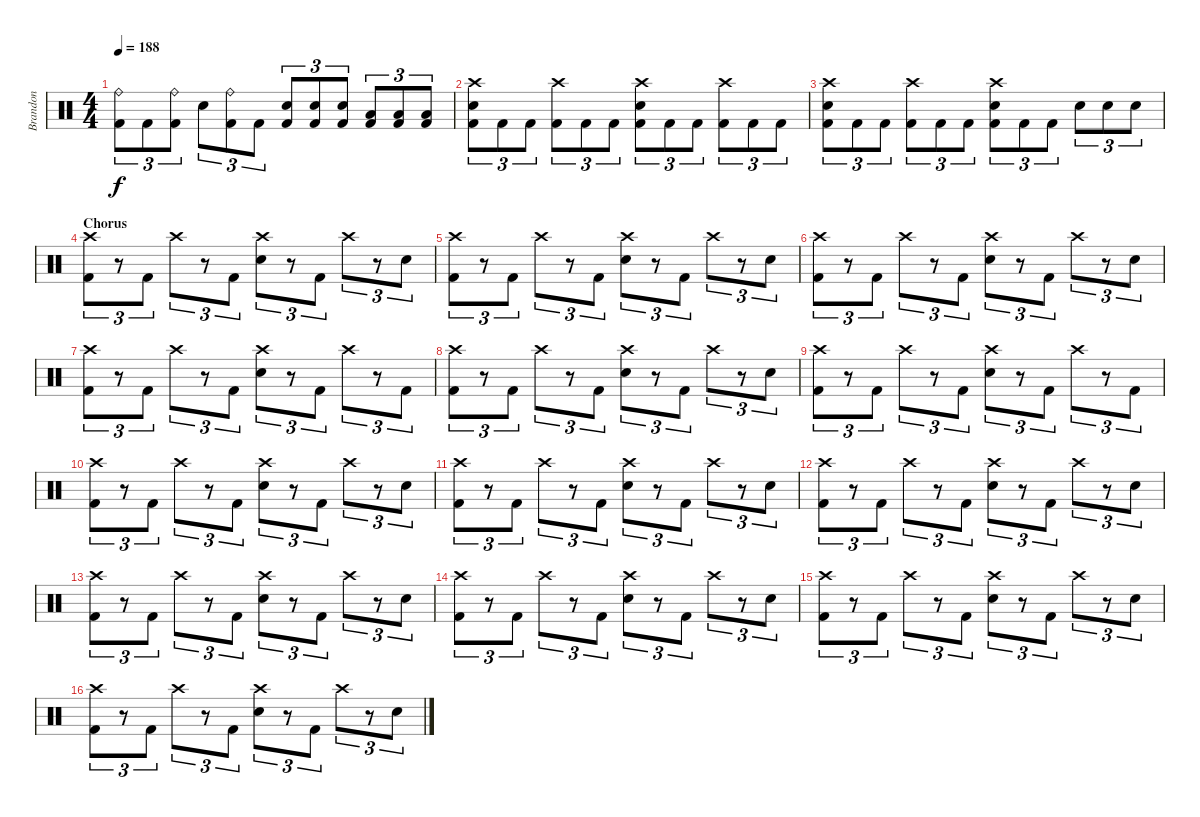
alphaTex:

\track ("Brandon" "Brandon") {instrument percussion}
\staff {score}
\articulation defaults
\ts (4 4)
\tempo 188
\clef neutral
\ks c
("Ride (bell)" "Kick (hit) 2").8{tu (3 2) dy f} "Kick (hit) 2".8{tu (3 2)} ("Ride (bell)" "Kick (hit) 2").8{tu (3 2)} "Snare (hit) 2".8{tu (3 2)} ("Ride (bell)" "Kick (hit) 2").8{tu (3 2)} "Kick (hit) 2".8{tu (3 2)} ("Snare (hit) 2" "Kick (hit) 2").8{tu (3 2)} ("Snare (hit) 2" "Kick (hit) 2").8{tu (3 2)} ("Snare (hit) 2" "Kick (hit) 2").8{tu (3 2)} ("Low Tom (hit)" "Kick (hit) 2").8{tu (3 2)} ("Low Tom (hit)" "Kick (hit) 2").8{tu (3 2)} ("Low Tom (hit)" "Kick (hit) 2").8{tu (3 2)} |
("Crash high (hit)" "Snare (hit) 2" "Kick (hit) 2").8{tu (3 2)} "Kick (hit) 2".8{tu (3 2)} "Kick (hit) 2".8{tu (3 2)} ("Crash high (hit)" "Kick (hit) 2").8{tu (3 2)} "Kick (hit) 2".8{tu (3 2)} "Kick (hit) 2".8{tu (3 2)} ("Crash high (hit)" "Snare (hit) 2" "Kick (hit) 2").8{tu (3 2)} "Kick (hit) 2".8{tu (3 2)} "Kick (hit) 2".8{tu (3 2)} ("Crash high (hit)" "Kick (hit) 2").8{tu (3 2)} "Kick (hit) 2".8{tu (3 2)} "Kick (hit) 2".8{tu (3 2)} |
("Crash high (hit)" "Snare (hit) 2" "Kick (hit) 2").8{tu (3 2)} "Kick (hit) 2".8{tu (3 2)} "Kick (hit) 2".8{tu (3 2)} ("Crash high (hit)" "Kick (hit) 2").8{tu (3 2)} "Kick (hit) 2".8{tu (3 2)} "Kick (hit) 2".8{tu (3 2)} ("Crash high (hit)" "Snare (hit) 2" "Kick (hit) 2").8{tu (3 2)} "Kick (hit) 2".8{tu (3 2)} "Kick (hit) 2".8{tu (3 2)} "Snare (hit) 2".8{tu (3 2)} "Snare (hit) 2".8{tu (3 2)} "Snare (hit) 2".8{tu (3 2)} |
\section ("" "Chorus")
("Crash high (hit)" "Kick (hit) 2").8{tu (3 2)} r.8{tu (3 2)} "Kick (hit) 2".8{tu (3 2)} "Crash high (hit)".8{tu (3 2)} r.8{tu (3 2)} "Kick (hit) 2".8{tu (3 2)} ("Crash high (hit)" "Snare (hit) 2").8{tu (3 2)} r.8{tu (3 2)} "Kick (hit) 2".8{tu (3 2)} "Crash high (hit)".8{tu (3 2)} r.8{tu (3 2)} "Snare (hit) 2".8{tu (3 2)} |
("Crash high (hit)" "Kick (hit) 2").8{tu (3 2)} r.8{tu (3 2)} "Kick (hit) 2".8{tu (3 2)} "Crash high (hit)".8{tu (3 2)} r.8{tu (3 2)} "Kick (hit) 2".8{tu (3 2)} ("Crash high (hit)" "Snare (hit) 2").8{tu (3 2)} r.8{tu (3 2)} "Kick (hit) 2".8{tu (3 2)} "Crash high (hit)".8{tu (3 2)} r.8{tu (3 2)} "Snare (hit) 2".8{tu (3 2)} |
("Crash high (hit)" "Kick (hit) 2").8{tu (3 2)} r.8{tu (3 2)} "Kick (hit) 2".8{tu (3 2)} "Crash high (hit)".8{tu (3 2)} r.8{tu (3 2)} "Kick (hit) 2".8{tu (3 2)} ("Crash high (hit)" "Snare (hit) 2").8{tu (3 2)} r.8{tu (3 2)} "Kick (hit) 2".8{tu (3 2)} "Crash high (hit)".8{tu (3 2)} r.8{tu (3 2)} "Snare (hit) 2".8{tu (3 2)} |
("Crash high (hit)" "Kick (hit) 2").8{tu (3 2)} r.8{tu (3 2)} "Kick (hit) 2".8{tu (3 2)} "Crash high (hit)".8{tu (3 2)} r.8{tu (3 2)} "Kick (hit) 2".8{tu (3 2)} ("Crash high (hit)" "Snare (hit) 2").8{tu (3 2)} r.8{tu (3 2)} "Kick (hit) 2".8{tu (3 2)} "Crash high (hit)".8{tu (3 2)} r.8{tu (3 2)} "Kick (hit) 2".8{tu (3 2)} |
("Crash high (hit)" "Kick (hit) 2").8{tu (3 2)} r.8{tu (3 2)} "Kick (hit) 2".8{tu (3 2)} "Crash high (hit)".8{tu (3 2)} r.8{tu (3 2)} "Kick (hit) 2".8{tu (3 2)} ("Crash high (hit)" "Snare (hit) 2").8{tu (3 2)} r.8{tu (3 2)} "Kick (hit) 2".8{tu (3 2)} "Crash high (hit)".8{tu (3 2)} r.8{tu (3 2)} "Snare (hit) 2".8{tu (3 2)} |
("Crash high (hit)" "Kick (hit) 2").8{tu (3 2)} r.8{tu (3 2)} "Kick (hit) 2".8{tu (3 2)} "Crash high (hit)".8{tu (3 2)} r.8{tu (3 2)} "Kick (hit) 2".8{tu (3 2)} ("Crash high (hit)" "Snare (hit) 2").8{tu (3 2)} r.8{tu (3 2)} "Kick (hit) 2".8{tu (3 2)} "Crash high (hit)".8{tu (3 2)} r.8{tu (3 2)} "Kick (hit) 2".8{tu (3 2)} |
("Crash high (hit)" "Kick (hit) 2").8{tu (3 2)} r.8{tu (3 2)} "Kick (hit) 2".8{tu (3 2)} "Crash high (hit)".8{tu (3 2)} r.8{tu (3 2)} "Kick (hit) 2".8{tu (3 2)} ("Crash high (hit)" "Snare (hit) 2").8{tu (3 2)} r.8{tu (3 2)} "Kick (hit) 2".8{tu (3 2)} "Crash high (hit)".8{tu (3 2)} r.8{tu (3 2)} "Snare (hit) 2".8{tu (3 2)} |
("Crash high (hit)" "Kick (hit) 2").8{tu (3 2)} r.8{tu (3 2)} "Kick (hit) 2".8{tu (3 2)} "Crash high (hit)".8{tu (3 2)} r.8{tu (3 2)} "Kick (hit) 2".8{tu (3 2)} ("Crash high (hit)" "Snare (hit) 2").8{tu (3 2)} r.8{tu (3 2)} "Kick (hit) 2".8{tu (3 2)} "Crash high (hit)".8{tu (3 2)} r.8{tu (3 2)} "Snare (hit) 2".8{tu (3 2)} |
("Crash high (hit)" "Kick (hit) 2").8{tu (3 2)} r.8{tu (3 2)} "Kick (hit) 2".8{tu (3 2)} "Crash high (hit)".8{tu (3 2)} r.8{tu (3 2)} "Kick (hit) 2".8{tu (3 2)} ("Crash high (hit)" "Snare (hit) 2").8{tu (3 2)} r.8{tu (3 2)} "Kick (hit) 2".8{tu (3 2)} "Crash high (hit)".8{tu (3 2)} r.8{tu (3 2)} "Snare (hit) 2".8{tu (3 2)} |
("Crash high (hit)" "Kick (hit) 2").8{tu (3 2)} r.8{tu (3 2)} "Kick (hit) 2".8{tu (3 2)} "Crash high (hit)".8{tu (3 2)} r.8{tu (3 2)} "Kick (hit) 2".8{tu (3 2)} ("Crash high (hit)" "Snare (hit) 2").8{tu (3 2)} r.8{tu (3 2)} "Kick (hit) 2".8{tu (3 2)} "Crash high (hit)".8{tu (3 2)} r.8{tu (3 2)} "Snare (hit) 2".8{tu (3 2)} |
("Crash high (hit)" "Kick (hit) 2").8{tu (3 2)} r.8{tu (3 2)} "Kick (hit) 2".8{tu (3 2)} "Crash high (hit)".8{tu (3 2)} r.8{tu (3 2)} "Kick (hit) 2".8{tu (3 2)} ("Crash high (hit)" "Snare (hit) 2").8{tu (3 2)} r.8{tu (3 2)} "Kick (hit) 2".8{tu (3 2)} "Crash high (hit)".8{tu (3 2)} r.8{tu (3 2)} "Snare (hit) 2".8{tu (3 2)} |
("Crash high (hit)" "Kick (hit) 2").8{tu (3 2)} r.8{tu (3 2)} "Kick (hit) 2".8{tu (3 2)} "Crash high (hit)".8{tu (3 2)} r.8{tu (3 2)} "Kick (hit) 2".8{tu (3 2)} ("Crash high (hit)" "Snare (hit) 2").8{tu (3 2)} r.8{tu (3 2)} "Kick (hit) 2".8{tu (3 2)} "Crash high (hit)".8{tu (3 2)} r.8{tu (3 2)} "Snare (hit) 2".8{tu (3 2)} |
("Crash high (hit)" "Kick (hit) 2").8{tu (3 2)} r.8{tu (3 2)} "Kick (hit) 2".8{tu (3 2)} "Crash high (hit)".8{tu (3 2)} r.8{tu (3 2)} "Kick (hit) 2".8{tu (3 2)} ("Crash high (hit)" "Snare (hit) 2").8{tu (3 2)} r.8{tu (3 2)} "Kick (hit) 2".8{tu (3 2)} "Crash high (hit)".8{tu (3 2)} r.8{tu (3 2)} "Snare (hit) 2".8{tu (3 2)}
